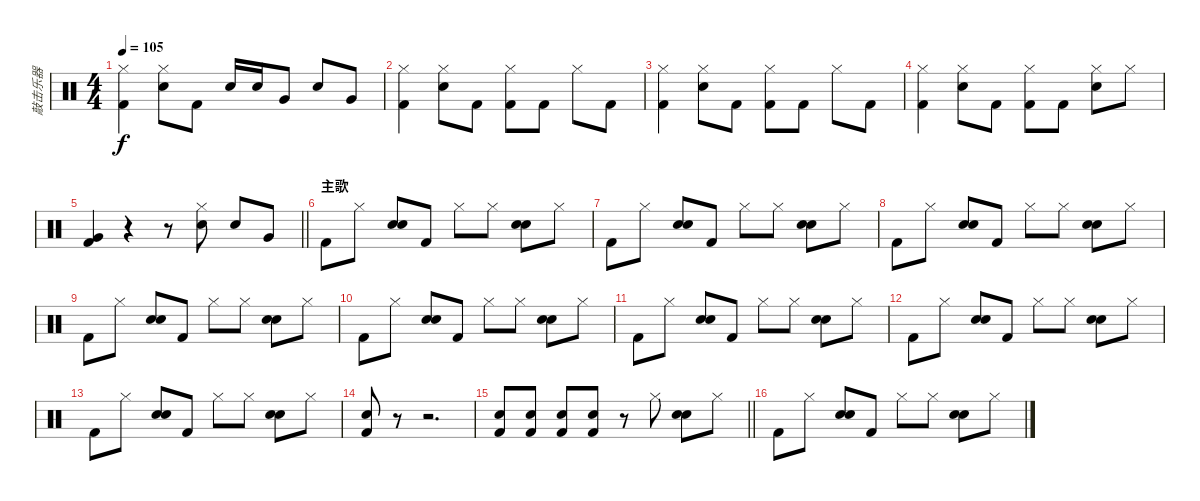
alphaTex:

\track ("敲击乐器" "敲击乐器") {instrument percussion}
\staff {score}
\articulation defaults
\ts (4 4)
\tempo 105
\clef neutral
\ks c
("Kick (hit) 2" "Hi-Hat (closed)").4{dy f} ("Electric Snare (hit)" "Hi-Hat (closed)").8 "Kick (hit) 2".8 "Electric Snare (hit)".16 "Electric Snare (hit)".16 "Very Low Tom (hit)".8 "Electric Snare (hit)".8 "Very Low Tom (hit)".8 |
("Kick (hit) 2" "Hi-Hat (closed)").4 ("Electric Snare (hit)" "Hi-Hat (closed)").8 "Kick (hit) 2".8 ("Kick (hit) 2" "Hi-Hat (closed)").8 "Kick (hit) 2".8 "Hi-Hat (closed)".8 "Kick (hit) 2".8 |
("Kick (hit) 2" "Hi-Hat (closed)").4 ("Electric Snare (hit)" "Hi-Hat (closed)").8 "Kick (hit) 2".8 ("Kick (hit) 2" "Hi-Hat (closed)").8 "Kick (hit) 2".8 "Hi-Hat (closed)".8 "Kick (hit) 2".8 |
("Kick (hit) 2" "Hi-Hat (closed)").4 ("Electric Snare (hit)" "Hi-Hat (closed)").8 "Kick (hit) 2".8 ("Kick (hit) 2" "Hi-Hat (closed)").8 "Kick (hit) 2".8 ("Electric Snare (hit)" "Hi-Hat (closed)").8 "Hi-Hat (closed)".8 |
\barLineRight lightlight
("Kick (hit) 2" "Very Low Tom (hit)").4 r.4 r.8 ("Hi-Hat (closed)" "Electric Snare (hit)").8 "Electric Snare (hit)".8 "Very Low Tom (hit)".8 |
\section ("" "主歌")
"Kick (hit) 2".8 "Hi-Hat (closed)".8 ("Electric Snare (hit)" "Hand Clap (hit)").8 "Kick (hit) 2".8 "Hi-Hat (closed)".8 "Hi-Hat (closed)".8 ("Electric Snare (hit)" "Hand Clap (hit)").8 "Hi-Hat (closed)".8 |
"Kick (hit) 2".8 "Hi-Hat (closed)".8 ("Electric Snare (hit)" "Hand Clap (hit)").8 "Kick (hit) 2".8 "Hi-Hat (closed)".8 "Hi-Hat (closed)".8 ("Electric Snare (hit)" "Hand Clap (hit)").8 "Hi-Hat (closed)".8 |
"Kick (hit) 2".8 "Hi-Hat (closed)".8 ("Electric Snare (hit)" "Hand Clap (hit)").8 "Kick (hit) 2".8 "Hi-Hat (closed)".8 "Hi-Hat (closed)".8 ("Electric Snare (hit)" "Hand Clap (hit)").8 "Hi-Hat (closed)".8 |
"Kick (hit) 2".8 "Hi-Hat (closed)".8 ("Electric Snare (hit)" "Hand Clap (hit)").8 "Kick (hit) 2".8 "Hi-Hat (closed)".8 "Hi-Hat (closed)".8 ("Electric Snare (hit)" "Hand Clap (hit)").8 "Hi-Hat (closed)".8 |
"Kick (hit) 2".8 "Hi-Hat (closed)".8 ("Electric Snare (hit)" "Hand Clap (hit)").8 "Kick (hit) 2".8 "Hi-Hat (closed)".8 "Hi-Hat (closed)".8 ("Electric Snare (hit)" "Hand Clap (hit)").8 "Hi-Hat (closed)".8 |
"Kick (hit) 2".8 "Hi-Hat (closed)".8 ("Electric Snare (hit)" "Hand Clap (hit)").8 "Kick (hit) 2".8 "Hi-Hat (closed)".8 "Hi-Hat (closed)".8 ("Electric Snare (hit)" "Hand Clap (hit)").8 "Hi-Hat (closed)".8 |
"Kick (hit) 2".8 "Hi-Hat (closed)".8 ("Electric Snare (hit)" "Hand Clap (hit)").8 "Kick (hit) 2".8 "Hi-Hat (closed)".8 "Hi-Hat (closed)".8 ("Electric Snare (hit)" "Hand Clap (hit)").8 "Hi-Hat (closed)".8 |
"Kick (hit) 2".8 "Hi-Hat (closed)".8 ("Electric Snare (hit)" "Hand Clap (hit)").8 "Kick (hit) 2".8 "Hi-Hat (closed)".8 "Hi-Hat (closed)".8 ("Electric Snare (hit)" "Hand Clap (hit)").8 "Hi-Hat (closed)".8 |
("Kick (hit) 2" "Electric Snare (hit)").8 r.8 r.2{d} |
\barLineRight lightlight
("Electric Snare (hit)" "Kick (hit) 2").8 ("Kick (hit) 2" "Electric Snare (hit)").8 ("Electric Snare (hit)" "Kick (hit) 2").8 ("Kick (hit) 2" "Electric Snare (hit)").8 r.8 "Hi-Hat (closed)".8 ("Electric Snare (hit)" "Hand Clap (hit)").8 "Hi-Hat (closed)".8 |
"Kick (hit) 2".8 "Hi-Hat (closed)".8 ("Electric Snare (hit)" "Hand Clap (hit)").8 "Kick (hit) 2".8 "Hi-Hat (closed)".8 "Hi-Hat (closed)".8 ("Electric Snare (hit)" "Hand Clap (hit)").8 "Hi-Hat (closed)".8
